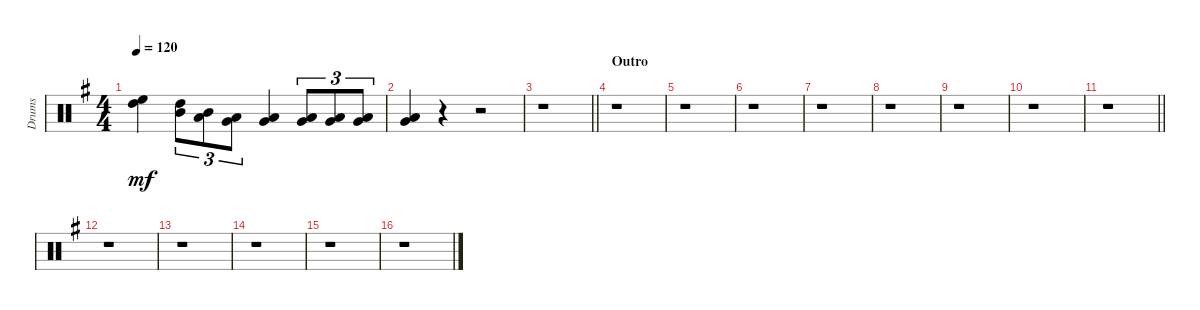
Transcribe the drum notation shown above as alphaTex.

\track ("Drums" "Drums") {instrument percussion}
\staff {score}
\articulation defaults
\ts (4 4)
\tempo 120
\clef neutral
\ks eminor
("High Tom (hit)" "High Floor Tom (hit)").4{dy mf} ("Mid Tom (hit)" "High Tom (hit)").8{tu (3 2)} ("Low Tom (hit)" "Mid Tom (hit)").8{tu (3 2)} ("Very Low Tom (hit)" "Low Tom (hit)").8{tu (3 2)} ("Low Tom (hit)" "Very Low Tom (hit)").4 ("Low Tom (hit)" "Very Low Tom (hit)").8{tu (3 2)} ("Very Low Tom (hit)" "Low Floor Tom (hit)").8{tu (3 2)} ("Low Floor Tom (hit)" "Very Low Tom (hit)").8{tu (3 2)} |
("Low Floor Tom (hit)" "Very Low Tom (hit)").4 r.4 r.2 |
\barLineRight lightlight
r.1 |
\section ("" "Outro")
r.1 |
r.1 |
r.1 |
r.1 |
r.1 |
r.1 |
r.1 |
\barLineRight lightlight
r.1 |
\section ("" "")
r.1 |
r.1 |
r.1 |
r.1 |
r.1
